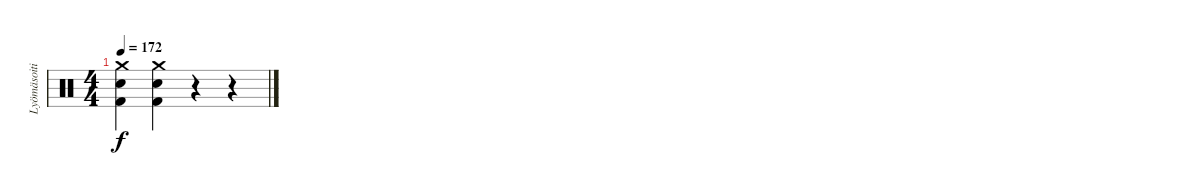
\track ("Lyömäsoitin" "Lyömäsoiti") {instrument percussion}
\staff {score}
\articulation defaults
\ts (4 4)
\tempo 172
\clef neutral
\ks c
("Crash medium (hit)" "Electric Snare (hit)" "Kick (hit) 2").4{dy f} ("Crash medium (hit)" "Electric Snare (hit)" "Kick (hit) 2").4 r.4 r.4
